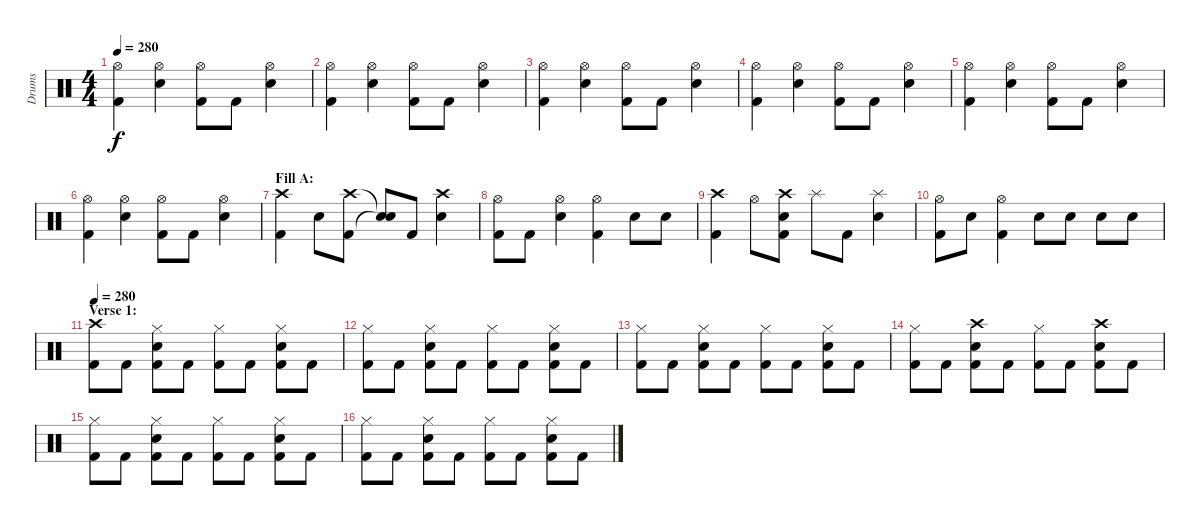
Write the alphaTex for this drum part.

\track ("Drums" "Drums") {instrument percussion}
\staff {score}
\articulation defaults
\ts (4 4)
\tempo 280
\clef neutral
\ks c
("Hi-Hat (open)" "Kick (hit) 2").4{dy f} ("Hi-Hat (open)" "Snare (hit) 2").4 ("Hi-Hat (open)" "Kick (hit) 2").8 "Kick (hit) 2".8 ("Hi-Hat (open)" "Snare (hit) 2").4 |
("Hi-Hat (open)" "Kick (hit) 2").4 ("Hi-Hat (open)" "Snare (hit) 2").4 ("Hi-Hat (open)" "Kick (hit) 2").8 "Kick (hit) 2".8 ("Hi-Hat (open)" "Snare (hit) 2").4 |
("Hi-Hat (open)" "Kick (hit) 2").4 ("Hi-Hat (open)" "Snare (hit) 2").4 ("Hi-Hat (open)" "Kick (hit) 2").8 "Kick (hit) 2".8 ("Hi-Hat (open)" "Snare (hit) 2").4 |
("Hi-Hat (open)" "Kick (hit) 2").4 ("Hi-Hat (open)" "Snare (hit) 2").4 ("Hi-Hat (open)" "Kick (hit) 2").8 "Kick (hit) 2".8 ("Hi-Hat (open)" "Snare (hit) 2").4 |
("Hi-Hat (open)" "Kick (hit) 2").4 ("Hi-Hat (open)" "Snare (hit) 2").4 ("Hi-Hat (open)" "Kick (hit) 2").8 "Kick (hit) 2".8 ("Hi-Hat (open)" "Snare (hit) 2").4 |
("Hi-Hat (open)" "Kick (hit) 2").4 ("Hi-Hat (open)" "Snare (hit) 2").4 ("Hi-Hat (open)" "Kick (hit) 2").8 "Kick (hit) 2".8 ("Hi-Hat (open)" "Snare (hit) 2").4 |
\section ("" "Fill A:")
("Crash high (hit)" "Kick (hit) 2").4 "Snare (hit) 2".8 ("Crash high (hit)" "Kick (hit) 2").8 ("Snare (hit)"{t} "Snare (hit)"{t}).8 "Kick (hit) 2".8 ("Crash high (hit)" "Snare (hit) 2").4 |
("Hi-Hat (open)" "Kick (hit) 2").8 "Kick (hit) 2".8 ("Hi-Hat (open)" "Snare (hit) 2").4 ("Hi-Hat (open)" "Kick (hit) 2").4 "Snare (hit) 2".8 "Snare (hit) 2".8 |
("Crash high (hit)" "Kick (hit) 2").4 "Hi-Hat (open)".8 ("Crash high (hit)" "Snare (hit) 2" "Kick (hit) 2").8 "Splash (hit)".8 "Kick (hit) 2".8 ("Splash (hit)" "Snare (hit) 2").4 |
("Hi-Hat (open)" "Kick (hit) 2").8 "Snare (hit) 2".8 ("Hi-Hat (open)" "Kick (hit) 2").4 "Snare (hit) 2".8 "Snare (hit) 2".8 "Snare (hit) 2".8 "Snare (hit) 2".8 |
\section ("" "Verse 1:")
\tempo 280
("Crash high (hit)" "Kick (hit) 2").8 "Kick (hit) 2".8 ("Hi-Hat (closed)" "Snare (hit) 2" "Kick (hit) 2").8 "Kick (hit) 2".8 ("Hi-Hat (closed)" "Kick (hit) 2").8 "Kick (hit) 2".8 ("Hi-Hat (closed)" "Snare (hit) 2" "Kick (hit) 2").8 "Kick (hit) 2".8 |
("Hi-Hat (closed)" "Kick (hit) 2").8 "Kick (hit) 2".8 ("Hi-Hat (closed)" "Snare (hit) 2" "Kick (hit) 2").8 "Kick (hit) 2".8 ("Hi-Hat (closed)" "Kick (hit) 2").8 "Kick (hit) 2".8 ("Hi-Hat (closed)" "Snare (hit) 2" "Kick (hit) 2").8 "Kick (hit) 2".8 |
("Hi-Hat (closed)" "Kick (hit) 2").8 "Kick (hit) 2".8 ("Hi-Hat (closed)" "Snare (hit) 2" "Kick (hit) 2").8 "Kick (hit) 2".8 ("Hi-Hat (closed)" "Kick (hit) 2").8 "Kick (hit) 2".8 ("Hi-Hat (closed)" "Snare (hit) 2" "Kick (hit) 2").8 "Kick (hit) 2".8 |
("Hi-Hat (closed)" "Kick (hit) 2").8 "Kick (hit) 2".8 ("Crash high (hit)" "Snare (hit) 2" "Kick (hit) 2").8 "Kick (hit) 2".8 ("Hi-Hat (closed)" "Kick (hit) 2").8 "Kick (hit) 2".8 ("Crash high (hit)" "Snare (hit) 2" "Kick (hit) 2").8 "Kick (hit) 2".8 |
("Hi-Hat (closed)" "Kick (hit) 2").8 "Kick (hit) 2".8 ("Hi-Hat (closed)" "Snare (hit) 2" "Kick (hit) 2").8 "Kick (hit) 2".8 ("Hi-Hat (closed)" "Kick (hit) 2").8 "Kick (hit) 2".8 ("Hi-Hat (closed)" "Snare (hit) 2" "Kick (hit) 2").8 "Kick (hit) 2".8 |
("Hi-Hat (closed)" "Kick (hit) 2").8 "Kick (hit) 2".8 ("Hi-Hat (closed)" "Snare (hit) 2" "Kick (hit) 2").8 "Kick (hit) 2".8 ("Hi-Hat (closed)" "Kick (hit) 2").8 "Kick (hit) 2".8 ("Hi-Hat (closed)" "Snare (hit) 2" "Kick (hit) 2").8 "Kick (hit) 2".8
